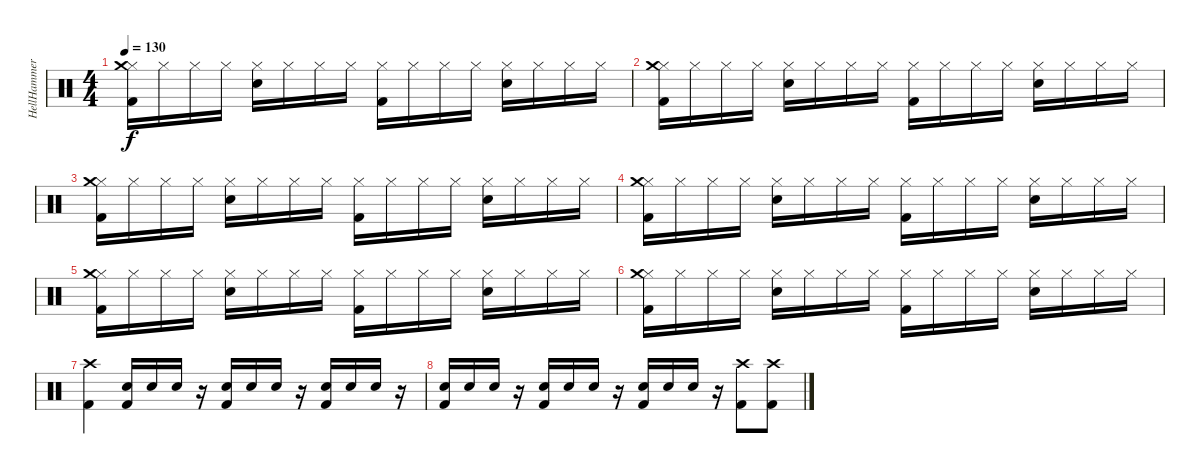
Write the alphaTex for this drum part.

\track ("HellHammer - Drums" "HellHammer") {instrument percussion}
\staff {score}
\articulation defaults
\ts (4 4)
\tempo 130
\clef neutral
\ks c
("Kick (hit) 2" "Hi-Hat (closed)" "Crash medium (hit)").16{dy f} "Hi-Hat (closed)".16 "Hi-Hat (closed)".16 "Hi-Hat (closed)".16 ("Hi-Hat (closed)" "Snare (hit) 2").16 "Hi-Hat (closed)".16 "Hi-Hat (closed)".16 "Hi-Hat (closed)".16 ("Hi-Hat (closed)" "Kick (hit) 2").16 "Hi-Hat (closed)".16 "Hi-Hat (closed)".16 "Hi-Hat (closed)".16 ("Hi-Hat (closed)" "Snare (hit) 2").16 "Hi-Hat (closed)".16 "Hi-Hat (closed)".16 "Hi-Hat (closed)".16 |
("Kick (hit) 2" "Hi-Hat (closed)" "Crash medium (hit)").16 "Hi-Hat (closed)".16 "Hi-Hat (closed)".16 "Hi-Hat (closed)".16 ("Hi-Hat (closed)" "Snare (hit) 2").16 "Hi-Hat (closed)".16 "Hi-Hat (closed)".16 "Hi-Hat (closed)".16 ("Hi-Hat (closed)" "Kick (hit) 2").16 "Hi-Hat (closed)".16 "Hi-Hat (closed)".16 "Hi-Hat (closed)".16 ("Hi-Hat (closed)" "Snare (hit) 2").16 "Hi-Hat (closed)".16 "Hi-Hat (closed)".16 "Hi-Hat (closed)".16 |
("Kick (hit) 2" "Hi-Hat (closed)" "Crash medium (hit)").16 "Hi-Hat (closed)".16 "Hi-Hat (closed)".16 "Hi-Hat (closed)".16 ("Hi-Hat (closed)" "Snare (hit) 2").16 "Hi-Hat (closed)".16 "Hi-Hat (closed)".16 "Hi-Hat (closed)".16 ("Hi-Hat (closed)" "Kick (hit) 2").16 "Hi-Hat (closed)".16 "Hi-Hat (closed)".16 "Hi-Hat (closed)".16 ("Hi-Hat (closed)" "Snare (hit) 2").16 "Hi-Hat (closed)".16 "Hi-Hat (closed)".16 "Hi-Hat (closed)".16 |
("Kick (hit) 2" "Hi-Hat (closed)" "Crash medium (hit)").16 "Hi-Hat (closed)".16 "Hi-Hat (closed)".16 "Hi-Hat (closed)".16 ("Hi-Hat (closed)" "Snare (hit) 2").16 "Hi-Hat (closed)".16 "Hi-Hat (closed)".16 "Hi-Hat (closed)".16 ("Hi-Hat (closed)" "Kick (hit) 2").16 "Hi-Hat (closed)".16 "Hi-Hat (closed)".16 "Hi-Hat (closed)".16 ("Hi-Hat (closed)" "Snare (hit) 2").16 "Hi-Hat (closed)".16 "Hi-Hat (closed)".16 "Hi-Hat (closed)".16 |
("Kick (hit) 2" "Hi-Hat (closed)" "Crash medium (hit)").16 "Hi-Hat (closed)".16 "Hi-Hat (closed)".16 "Hi-Hat (closed)".16 ("Hi-Hat (closed)" "Snare (hit) 2").16 "Hi-Hat (closed)".16 "Hi-Hat (closed)".16 "Hi-Hat (closed)".16 ("Hi-Hat (closed)" "Kick (hit) 2").16 "Hi-Hat (closed)".16 "Hi-Hat (closed)".16 "Hi-Hat (closed)".16 ("Hi-Hat (closed)" "Snare (hit) 2").16 "Hi-Hat (closed)".16 "Hi-Hat (closed)".16 "Hi-Hat (closed)".16 |
("Kick (hit) 2" "Hi-Hat (closed)" "Crash medium (hit)").16 "Hi-Hat (closed)".16 "Hi-Hat (closed)".16 "Hi-Hat (closed)".16 ("Hi-Hat (closed)" "Snare (hit) 2").16 "Hi-Hat (closed)".16 "Hi-Hat (closed)".16 "Hi-Hat (closed)".16 ("Hi-Hat (closed)" "Kick (hit) 2").16 "Hi-Hat (closed)".16 "Hi-Hat (closed)".16 "Hi-Hat (closed)".16 ("Hi-Hat (closed)" "Snare (hit) 2").16 "Hi-Hat (closed)".16 "Hi-Hat (closed)".16 "Hi-Hat (closed)".16 |
("Kick (hit) 2" "Crash high (hit)").4{volume 13} ("Kick (hit) 2" "Snare (hit) 2").16 "Snare (hit) 2".16 "Snare (hit) 2".16 r.16 ("Kick (hit) 2" "Snare (hit) 2").16 "Snare (hit) 2".16 "Snare (hit) 2".16 r.16 ("Kick (hit) 2" "Snare (hit) 2").16 "Snare (hit) 2".16 "Snare (hit) 2".16 r.16 |
("Kick (hit) 2" "Snare (hit) 2").16{volume 10} "Snare (hit) 2".16 "Snare (hit) 2".16 r.16 ("Kick (hit) 2" "Snare (hit) 2").16 "Snare (hit) 2".16 "Snare (hit) 2".16 r.16 ("Kick (hit) 2" "Snare (hit) 2").16 "Snare (hit) 2".16 "Snare (hit) 2".16 r.16 ("Kick (hit) 2" "Crash high (hit)").8 ("Kick (hit) 2" "Crash high (hit)").8
